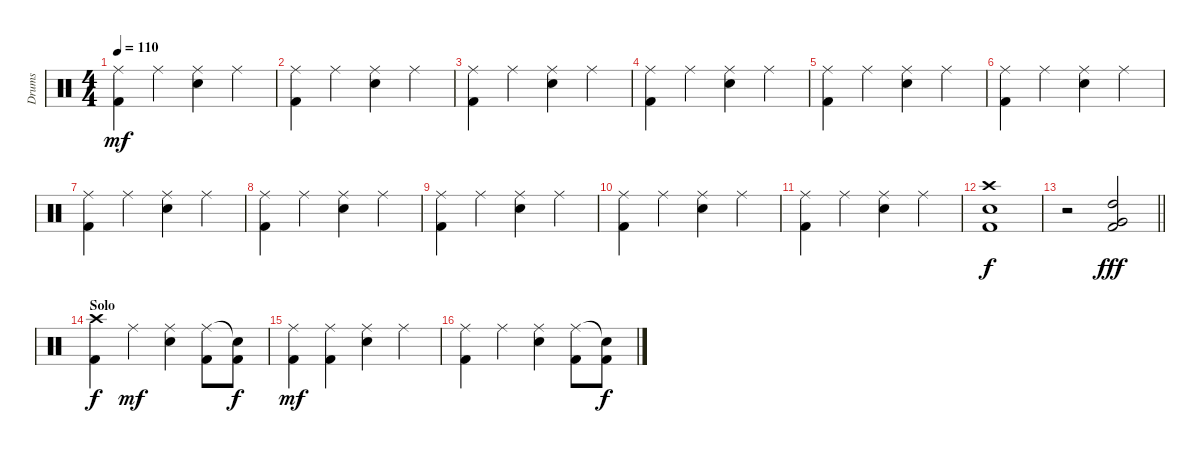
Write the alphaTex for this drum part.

\track ("Drums" "Drums") {instrument percussion}
\staff {score}
\articulation defaults
\ts (4 4)
\tempo 110
\clef neutral
\ks c
("Ride (middle)" "Kick (hit) 2").4{dy mf} "Ride (middle)".4 ("Ride (middle)" "Snare (hit) 2").4 "Ride (middle)".4 |
("Ride (middle)" "Kick (hit) 2").4 "Ride (middle)".4 ("Ride (middle)" "Snare (hit) 2").4 "Ride (middle)".4 |
("Ride (middle)" "Kick (hit) 2").4 "Ride (middle)".4 ("Ride (middle)" "Snare (hit) 2").4 "Ride (middle)".4 |
("Ride (middle)" "Kick (hit) 2").4 "Ride (middle)".4 ("Ride (middle)" "Snare (hit) 2").4 "Ride (middle)".4 |
("Ride (middle)" "Kick (hit) 2").4 "Ride (middle)".4 ("Ride (middle)" "Snare (hit) 2").4 "Ride (middle)".4 |
("Ride (middle)" "Kick (hit) 2").4 "Ride (middle)".4 ("Ride (middle)" "Snare (hit) 2").4 "Ride (middle)".4 |
("Ride (middle)" "Kick (hit) 2").4 "Ride (middle)".4 ("Ride (middle)" "Snare (hit) 2").4 "Ride (middle)".4 |
("Ride (middle)" "Kick (hit) 2").4 "Ride (middle)".4 ("Ride (middle)" "Snare (hit) 2").4 "Ride (middle)".4 |
("Ride (middle)" "Kick (hit) 2").4 "Ride (middle)".4 ("Ride (middle)" "Snare (hit) 2").4 "Ride (middle)".4 |
("Ride (middle)" "Kick (hit) 2").4 "Ride (middle)".4 ("Ride (middle)" "Snare (hit) 2").4 "Ride (middle)".4 |
("Ride (middle)" "Kick (hit) 2").4 "Ride (middle)".4 ("Ride (middle)" "Snare (hit) 2").4 "Ride (middle)".4 |
("Crash high (hit)" "Snare (hit) 2" "Kick (hit) 2").1{dy f} |
\barLineRight lightlight
r.2 ("High Tom (hit)" "Very Low Tom (hit)" "Kick (hit) 2").2{dy fff} |
\section ("" "Solo")
("Crash high (hit)" "Kick (hit) 2").4{dy f} "Ride (middle)".4{dy mf} ("Ride (middle)" "Snare (hit) 2").4 ("Ride (middle)" "Kick (hit) 2").8 ("Snare (hit)"{t} "Kick (hit) 2").8{dy f} |
("Ride (middle)" "Kick (hit) 2").4{dy mf} ("Ride (middle)" "Kick (hit) 2").4 ("Ride (middle)" "Snare (hit) 2").4 "Ride (middle)".4 |
("Ride (middle)" "Kick (hit) 2").4 "Ride (middle)".4 ("Ride (middle)" "Snare (hit) 2").4 ("Ride (middle)" "Kick (hit) 2").8 ("Snare (hit)"{t} "Kick (hit) 2").8{dy f}
